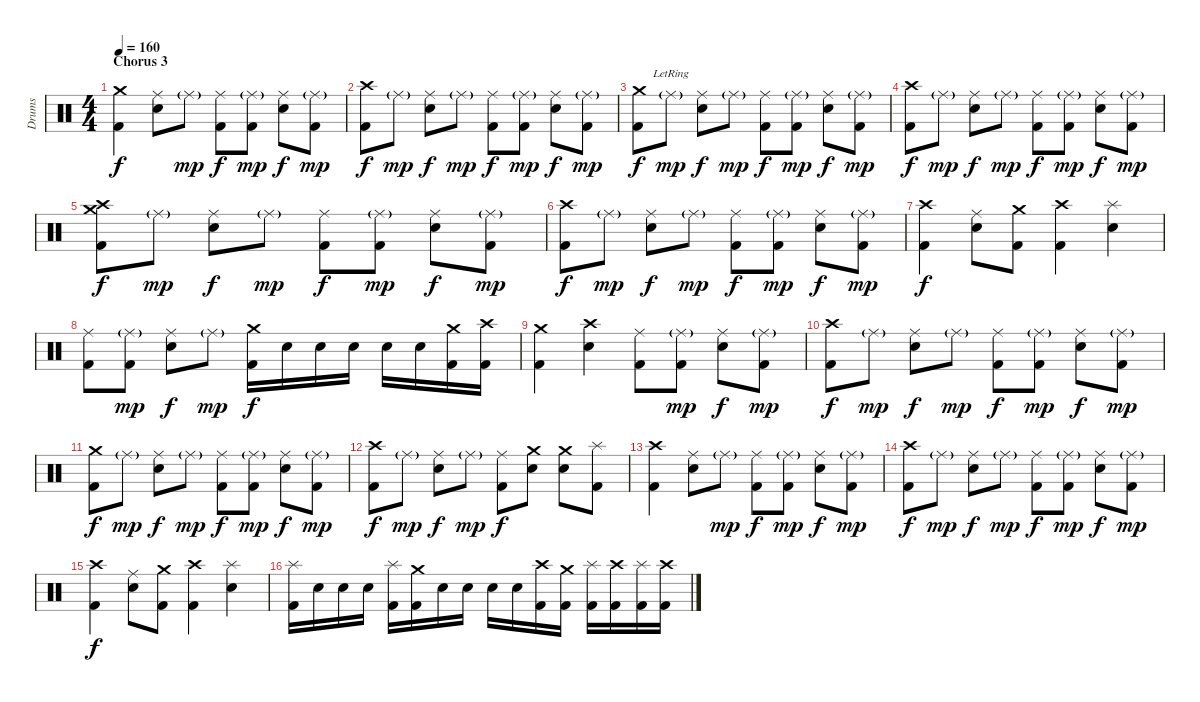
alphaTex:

\track ("Drums" "Drums") {instrument percussion}
\staff {score}
\articulation defaults
\ts (4 4)
\section ("" "Chorus 3")
\tempo 160
\clef neutral
\ks c
("Crash medium (hit)" "Kick (hit) 2").4{dy f} ("Ride (middle)" "Snare (hit) 2").8 "Ride (middle)"{g}.8{dy mp} ("Ride (middle)" "Kick (hit) 2").8{dy f} ("Ride (middle)"{g} "Kick (hit) 2").8{dy mp} ("Ride (middle)" "Snare (hit) 2").8{dy f} ("Ride (middle)"{g} "Kick (hit) 2").8{dy mp} |
("Crash high (hit)" "Kick (hit) 2").8{dy f} "Ride (middle)"{g}.8{dy mp} ("Ride (middle)" "Snare (hit) 2").8{dy f} "Ride (middle)"{g}.8{dy mp} ("Ride (middle)" "Kick (hit) 2").8{dy f} ("Ride (middle)"{g} "Kick (hit) 2").8{dy mp} ("Ride (middle)" "Snare (hit) 2").8{dy f} ("Ride (middle)"{g} "Kick (hit) 2").8{dy mp} |
("Crash medium (hit)" "Kick (hit) 2").8{dy f} "Ride (middle)"{g lr}.8{dy mp} ("Ride (middle)" "Snare (hit) 2").8{dy f} "Ride (middle)"{g}.8{dy mp} ("Ride (middle)" "Kick (hit) 2").8{dy f} ("Ride (middle)"{g} "Kick (hit) 2").8{dy mp} ("Ride (middle)" "Snare (hit) 2").8{dy f} ("Ride (middle)"{g} "Kick (hit) 2").8{dy mp} |
("Crash high (hit)" "Kick (hit) 2").8{dy f} "Ride (middle)"{g}.8{dy mp} ("Ride (middle)" "Snare (hit) 2").8{dy f} "Ride (middle)"{g}.8{dy mp} ("Ride (middle)" "Kick (hit) 2").8{dy f} ("Ride (middle)"{g} "Kick (hit) 2").8{dy mp} ("Ride (middle)" "Snare (hit) 2").8{dy f} ("Ride (middle)"{g} "Kick (hit) 2").8{dy mp} |
("Crash medium (hit)" "Crash high (hit)" "Kick (hit) 2").8{dy f} "Ride (middle)"{g}.8{dy mp} ("Ride (middle)" "Snare (hit) 2").8{dy f} "Ride (middle)"{g}.8{dy mp} ("Ride (middle)" "Kick (hit) 2").8{dy f} ("Ride (middle)"{g} "Kick (hit) 2").8{dy mp} ("Ride (middle)" "Snare (hit) 2").8{dy f} ("Ride (middle)"{g} "Kick (hit) 2").8{dy mp} |
("Crash high (hit)" "Kick (hit) 2").8{dy f} "Ride (middle)"{g}.8{dy mp} ("Ride (middle)" "Snare (hit) 2").8{dy f} "Ride (middle)"{g}.8{dy mp} ("Ride (middle)" "Kick (hit) 2").8{dy f} ("Ride (middle)"{g} "Kick (hit) 2").8{dy mp} ("Ride (middle)" "Snare (hit) 2").8{dy f} ("Ride (middle)"{g} "Kick (hit) 2").8{dy mp} |
("Crash high (hit)" "Kick (hit) 2").4{dy f} ("Ride (middle)" "Snare (hit) 2").8 ("Crash medium (hit)" "Kick (hit) 2").8 ("Crash high (hit)" "Kick (hit) 2").4 ("Splash (hit)" "Snare (hit) 2").4 |
("Ride (middle)" "Kick (hit) 2").8 ("Ride (middle)"{g} "Kick (hit) 2").8{dy mp} ("Ride (middle)" "Snare (hit) 2").8{dy f} "Ride (middle)"{g}.8{dy mp} ("Crash medium (hit)" "Kick (hit) 2").16{dy f} "Snare (hit) 2".16 "Snare (hit) 2".16 "Snare (hit) 2".16 "Snare (hit) 2".16 "Snare (hit) 2".16 ("Crash medium (hit)" "Kick (hit) 2").16 ("Crash high (hit)" "Kick (hit) 2").16 |
("Crash medium (hit)" "Kick (hit) 2").4 ("Crash high (hit)" "Snare (hit) 2").4 ("Ride (middle)" "Kick (hit) 2").8 ("Ride (middle)"{g} "Kick (hit) 2").8{dy mp} ("Ride (middle)" "Snare (hit) 2").8{dy f} ("Ride (middle)"{g} "Kick (hit) 2").8{dy mp} |
("Crash high (hit)" "Kick (hit) 2").8{dy f} "Ride (middle)"{g}.8{dy mp} ("Ride (middle)" "Snare (hit) 2").8{dy f} "Ride (middle)"{g}.8{dy mp} ("Ride (middle)" "Kick (hit) 2").8{dy f} ("Ride (middle)"{g} "Kick (hit) 2").8{dy mp} ("Ride (middle)" "Snare (hit) 2").8{dy f} ("Ride (middle)"{g} "Kick (hit) 2").8{dy mp} |
("Crash medium (hit)" "Kick (hit) 2").8{dy f} "Ride (middle)"{g}.8{dy mp} ("Ride (middle)" "Snare (hit) 2").8{dy f} "Ride (middle)"{g}.8{dy mp} ("Ride (middle)" "Kick (hit) 2").8{dy f} ("Ride (middle)"{g} "Kick (hit) 2").8{dy mp} ("Ride (middle)" "Snare (hit) 2").8{dy f} ("Ride (middle)"{g} "Kick (hit) 2").8{dy mp} |
("Crash high (hit)" "Kick (hit) 2").8{dy f} "Ride (middle)"{g}.8{dy mp} ("Ride (middle)" "Snare (hit) 2").8{dy f} "Ride (middle)"{g}.8{dy mp} ("Ride (middle)" "Kick (hit) 2").8{dy f} ("Crash medium (hit)" "Snare (hit) 2").8 ("Crash medium (hit)" "Snare (hit) 2").8 ("Splash (hit)" "Kick (hit) 2").8 |
("Crash high (hit)" "Kick (hit) 2").4 ("Ride (middle)" "Snare (hit) 2").8 "Ride (middle)"{g}.8{dy mp} ("Ride (middle)" "Kick (hit) 2").8{dy f} ("Ride (middle)"{g} "Kick (hit) 2").8{dy mp} ("Ride (middle)" "Snare (hit) 2").8{dy f} ("Ride (middle)"{g} "Kick (hit) 2").8{dy mp} |
("Crash high (hit)" "Kick (hit) 2").8{dy f} "Ride (middle)"{g}.8{dy mp} ("Ride (middle)" "Snare (hit) 2").8{dy f} "Ride (middle)"{g}.8{dy mp} ("Ride (middle)" "Kick (hit) 2").8{dy f} ("Ride (middle)"{g} "Kick (hit) 2").8{dy mp} ("Ride (middle)" "Snare (hit) 2").8{dy f} ("Ride (middle)"{g} "Kick (hit) 2").8{dy mp} |
("Crash high (hit)" "Kick (hit) 2").4{dy f} ("Ride (middle)" "Snare (hit) 2").8 ("Crash medium (hit)" "Kick (hit) 2").8 ("Crash high (hit)" "Kick (hit) 2").4 ("Splash (hit)" "Snare (hit) 2").4 |
("Splash (hit)" "Kick (hit) 2").16 "Snare (hit) 2".16 "Snare (hit) 2".16 "Snare (hit) 2".16 ("Splash (hit)" "Kick (hit) 2").16 ("Crash medium (hit)" "Kick (hit) 2").16 "Snare (hit) 2".16 "Snare (hit) 2".16 "Snare (hit) 2".16 "Snare (hit) 2".16 ("Crash high (hit)" "Kick (hit) 2").16 ("Crash medium (hit)" "Kick (hit) 2").16 ("Splash (hit)" "Kick (hit) 2").16 ("Crash high (hit)" "Kick (hit) 2").16 ("Splash (hit)" "Kick (hit) 2").16 ("Crash high (hit)" "Kick (hit) 2").16
